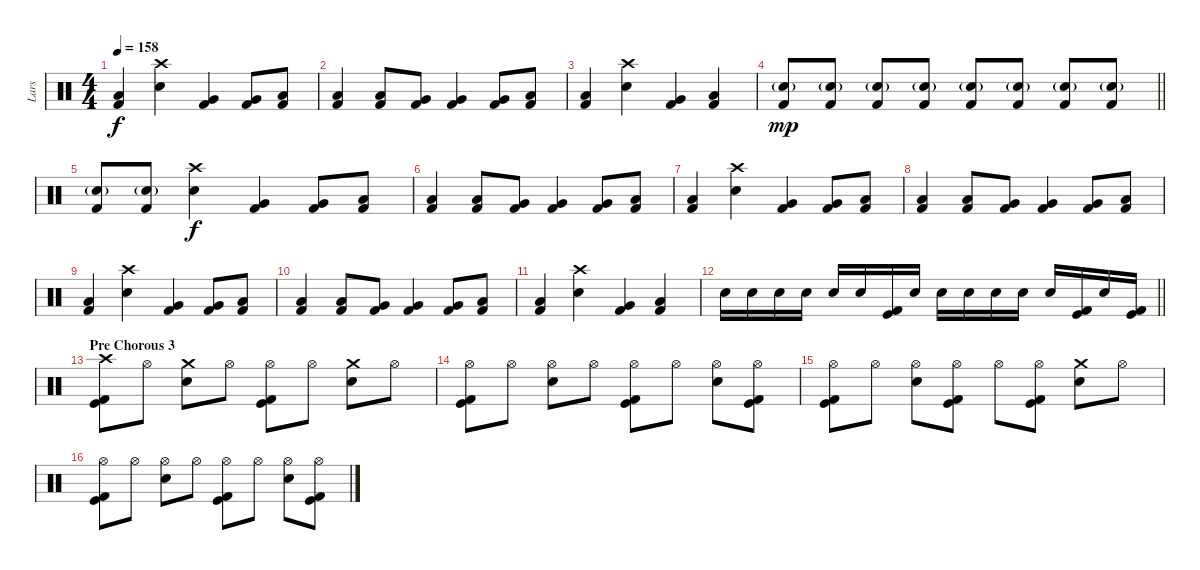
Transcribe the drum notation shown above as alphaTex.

\track ("Lars" "Lars") {instrument percussion}
\staff {score}
\articulation defaults
\ts (4 4)
\tempo 158
\clef neutral
\ks c
("Kick (hit) 2" "Low Tom (hit)").4{dy f} ("Crash high (hit)" "Electric Snare (hit)").4 ("Kick (hit) 2" "Very Low Tom (hit)").4 ("Kick (hit) 2" "Very Low Tom (hit)").8 ("Kick (hit) 2" "Low Floor Tom (hit)").8 |
("Kick (hit) 2" "Low Tom (hit)").4 ("Kick (hit) 2" "Low Tom (hit)").8 ("Kick (hit) 2" "Very Low Tom (hit)").8 ("Kick (hit) 2" "Very Low Tom (hit)").4 ("Kick (hit) 2" "Very Low Tom (hit)").8 ("Kick (hit) 2" "Low Floor Tom (hit)").8 |
("Kick (hit) 2" "Low Tom (hit)").4 ("Crash high (hit)" "Electric Snare (hit)").4 ("Kick (hit) 2" "Very Low Tom (hit)").4 ("Kick (hit) 2" "Low Floor Tom (hit)").4 |
\barLineRight lightlight
("Electric Snare (hit)"{g} "Kick (hit) 2").8{dy mp} ("Electric Snare (hit)"{g} "Kick (hit) 2").8 ("Electric Snare (hit)"{g} "Kick (hit) 2").8 ("Electric Snare (hit)"{g} "Kick (hit) 2").8 ("Electric Snare (hit)"{g} "Kick (hit) 2").8 ("Electric Snare (hit)"{g} "Kick (hit) 2").8 ("Electric Snare (hit)"{g} "Kick (hit) 2").8 ("Electric Snare (hit)"{g} "Kick (hit) 2").8 |
\section ("" "")
("Electric Snare (hit)"{g} "Kick (hit) 2").8 ("Electric Snare (hit)"{g} "Kick (hit) 2").8 ("Crash high (hit)" "Electric Snare (hit)").4{dy f} ("Kick (hit) 2" "Very Low Tom (hit)").4 ("Kick (hit) 2" "Very Low Tom (hit)").8 ("Kick (hit) 2" "Low Floor Tom (hit)").8 |
("Kick (hit) 2" "Low Tom (hit)").4 ("Kick (hit) 2" "Low Tom (hit)").8 ("Kick (hit) 2" "Very Low Tom (hit)").8 ("Kick (hit) 2" "Very Low Tom (hit)").4 ("Kick (hit) 2" "Very Low Tom (hit)").8 ("Kick (hit) 2" "Low Floor Tom (hit)").8 |
("Kick (hit) 2" "Low Tom (hit)").4 ("Crash high (hit)" "Electric Snare (hit)").4 ("Kick (hit) 2" "Very Low Tom (hit)").4 ("Kick (hit) 2" "Very Low Tom (hit)").8 ("Kick (hit) 2" "Low Floor Tom (hit)").8 |
("Kick (hit) 2" "Low Tom (hit)").4 ("Kick (hit) 2" "Low Tom (hit)").8 ("Kick (hit) 2" "Very Low Tom (hit)").8 ("Kick (hit) 2" "Very Low Tom (hit)").4 ("Kick (hit) 2" "Very Low Tom (hit)").8 ("Kick (hit) 2" "Low Floor Tom (hit)").8 |
("Kick (hit) 2" "Low Tom (hit)").4 ("Crash high (hit)" "Electric Snare (hit)").4 ("Kick (hit) 2" "Very Low Tom (hit)").4 ("Kick (hit) 2" "Very Low Tom (hit)").8 ("Kick (hit) 2" "Low Floor Tom (hit)").8 |
("Kick (hit) 2" "Low Tom (hit)").4 ("Kick (hit) 2" "Low Tom (hit)").8 ("Kick (hit) 2" "Very Low Tom (hit)").8 ("Kick (hit) 2" "Very Low Tom (hit)").4 ("Kick (hit) 2" "Very Low Tom (hit)").8 ("Kick (hit) 2" "Low Floor Tom (hit)").8 |
("Kick (hit) 2" "Low Tom (hit)").4 ("Crash high (hit)" "Electric Snare (hit)").4 ("Kick (hit) 2" "Very Low Tom (hit)").4 ("Kick (hit) 2" "Low Floor Tom (hit)").4 |
\barLineRight lightlight "Electric Snare (hit)".16 "Electric Snare (hit)".16 "Electric Snare (hit)".16 "Electric Snare (hit)".16 "Electric Snare (hit)".16 "Electric Snare (hit)".16
("Kick (hit)" "Kick (hit) 2").16 "Electric Snare (hit)".16 "Electric Snare (hit)".16 "Electric Snare (hit)".16 "Electric Snare (hit)".16 "Electric Snare (hit)".16 "Electric Snare (hit)".16 ("Kick (hit)" "Kick (hit) 2").16 "Electric Snare (hit)".16 ("Kick (hit)" "Kick (hit) 2").16 |
\section ("" "Pre Chorous 3")
("Crash high (hit)" "Kick (hit)" "Kick (hit) 2").8 "Hi-Hat (open)".8 ("Crash medium (hit)" "Electric Snare (hit)").8 "Hi-Hat (open)".8 ("Hi-Hat (open)" "Kick (hit)" "Kick (hit) 2").8 "Hi-Hat (open)".8 ("Crash medium (hit)" "Electric Snare (hit)").8 "Hi-Hat (open)".8 |
("Hi-Hat (open)" "Kick (hit)" "Kick (hit) 2").8 "Hi-Hat (open)".8 ("Hi-Hat (open)" "Electric Snare (hit)").8 "Hi-Hat (open)".8 ("Hi-Hat (open)" "Kick (hit)" "Kick (hit) 2").8 "Hi-Hat (open)".8 ("Hi-Hat (open)" "Electric Snare (hit)").8 ("Hi-Hat (open)" "Kick (hit)" "Kick (hit) 2").8 |
("Hi-Hat (open)" "Kick (hit)" "Kick (hit) 2").8 "Hi-Hat (open)".8 ("Hi-Hat (open)" "Electric Snare (hit)").8 ("Hi-Hat (open)" "Kick (hit)" "Kick (hit) 2").8 "Hi-Hat (open)".8 ("Hi-Hat (open)" "Kick (hit)" "Kick (hit) 2").8 ("Crash medium (hit)" "Electric Snare (hit)").8 "Hi-Hat (open)".8 |
("Hi-Hat (open)" "Kick (hit)" "Kick (hit) 2").8 "Hi-Hat (open)".8 ("Hi-Hat (open)" "Electric Snare (hit)").8 "Hi-Hat (open)".8 ("Hi-Hat (open)" "Kick (hit)" "Kick (hit) 2").8 "Hi-Hat (open)".8 ("Hi-Hat (open)" "Electric Snare (hit)").8 ("Hi-Hat (open)" "Kick (hit)" "Kick (hit) 2").8
